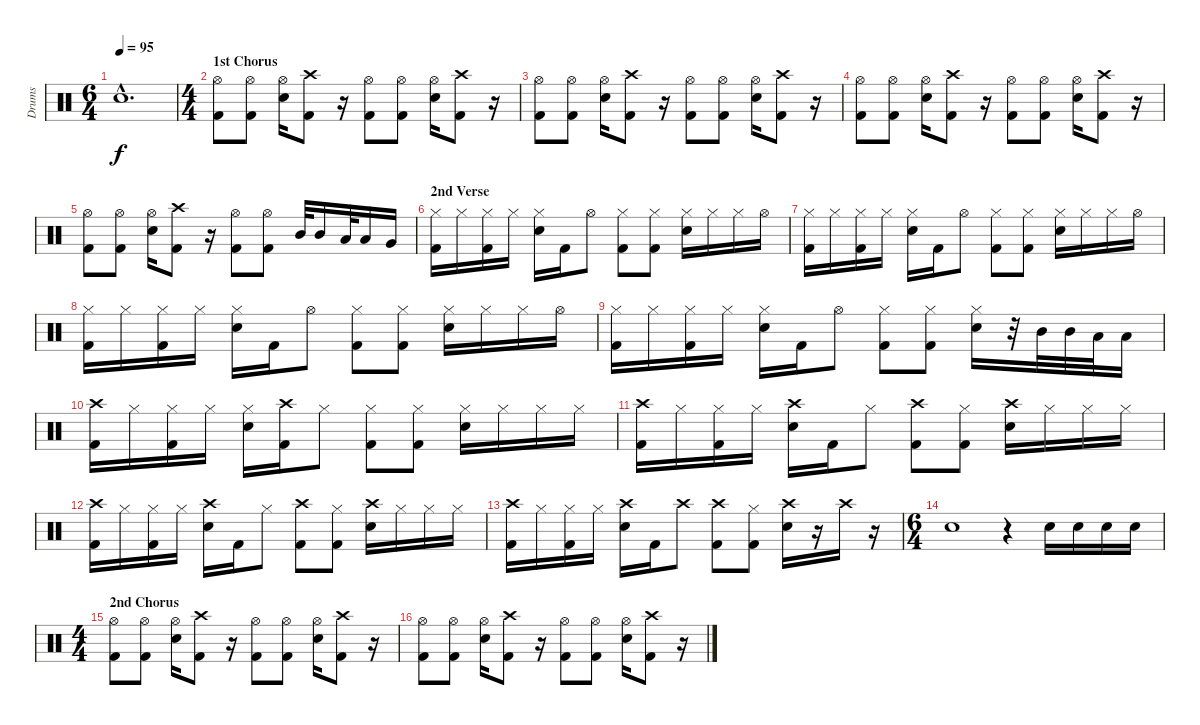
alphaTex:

\track ("Drums" "Drums") {instrument percussion}
\staff {score}
\articulation defaults
\ts (6 4)
\tempo 95
\clef neutral
\ks c "Electric Snare (hit)"{hac}.1{d dy f}
|
\ts (4 4)
\section ("" "1st Chorus")
("Hi-Hat (open)" "Kick (hit) 2").8 ("Hi-Hat (open)" "Kick (hit) 2").8 ("Hi-Hat (open)" "Electric Snare (hit)").16 ("Crash high (hit)" "Kick (hit) 2").8 r.16 ("Hi-Hat (open)" "Kick (hit) 2").8 ("Hi-Hat (open)" "Kick (hit) 2").8 ("Hi-Hat (open)" "Electric Snare (hit)").16 ("Crash high (hit)" "Kick (hit) 2").8 r.16 |
("Hi-Hat (open)" "Kick (hit) 2").8 ("Hi-Hat (open)" "Kick (hit) 2").8 ("Hi-Hat (open)" "Electric Snare (hit)").16 ("Crash high (hit)" "Kick (hit) 2").8 r.16 ("Hi-Hat (open)" "Kick (hit) 2").8 ("Hi-Hat (open)" "Kick (hit) 2").8 ("Hi-Hat (open)" "Electric Snare (hit)").16 ("Crash high (hit)" "Kick (hit) 2").8 r.16 |
("Hi-Hat (open)" "Kick (hit) 2").8 ("Hi-Hat (open)" "Kick (hit) 2").8 ("Hi-Hat (open)" "Electric Snare (hit)").16 ("Crash high (hit)" "Kick (hit) 2").8 r.16 ("Hi-Hat (open)" "Kick (hit) 2").8 ("Hi-Hat (open)" "Kick (hit) 2").8 ("Hi-Hat (open)" "Electric Snare (hit)").16 ("Crash high (hit)" "Kick (hit) 2").8 r.16 |
("Hi-Hat (open)" "Kick (hit) 2").8 ("Hi-Hat (open)" "Kick (hit) 2").8 ("Hi-Hat (open)" "Electric Snare (hit)").16 ("Crash high (hit)" "Kick (hit) 2").8 r.16 ("Hi-Hat (open)" "Kick (hit) 2").8 ("Hi-Hat (open)" "Kick (hit) 2").8 "Mid Tom (hit)".32 "Mid Tom (hit)".16 "Low Tom (hit)".32 "Low Tom (hit)".16 "Very Low Tom (hit)".16 |
\section ("" "2nd Verse")
("Hi-Hat (closed)" "Kick (hit) 2").16 "Hi-Hat (closed)".16 ("Hi-Hat (closed)" "Kick (hit) 2").16 "Hi-Hat (closed)".16 ("Hi-Hat (closed)" "Electric Snare (hit)").16 "Kick (hit) 2".16 "Hi-Hat (open)".8 ("Hi-Hat (closed)" "Kick (hit) 2").8 ("Hi-Hat (closed)" "Kick (hit) 2").8 ("Hi-Hat (closed)" "Electric Snare (hit)").16 "Hi-Hat (closed)".16 "Hi-Hat (closed)".16 "Hi-Hat (open)".16 |
("Hi-Hat (closed)" "Kick (hit) 2").16 "Hi-Hat (closed)".16 ("Hi-Hat (closed)" "Kick (hit) 2").16 "Hi-Hat (closed)".16 ("Hi-Hat (closed)" "Electric Snare (hit)").16 "Kick (hit) 2".16 "Hi-Hat (open)".8 ("Hi-Hat (closed)" "Kick (hit) 2").8 ("Hi-Hat (closed)" "Kick (hit) 2").8 ("Hi-Hat (closed)" "Electric Snare (hit)").16 "Hi-Hat (closed)".16 "Hi-Hat (closed)".16 "Hi-Hat (open)".16 |
("Hi-Hat (closed)" "Kick (hit) 2").16 "Hi-Hat (closed)".16 ("Hi-Hat (closed)" "Kick (hit) 2").16 "Hi-Hat (closed)".16 ("Hi-Hat (closed)" "Electric Snare (hit)").16 "Kick (hit) 2".16 "Hi-Hat (open)".8 ("Hi-Hat (closed)" "Kick (hit) 2").8 ("Hi-Hat (closed)" "Kick (hit) 2").8 ("Hi-Hat (closed)" "Electric Snare (hit)").16 "Hi-Hat (closed)".16 "Hi-Hat (closed)".16 "Hi-Hat (open)".16 |
("Hi-Hat (closed)" "Kick (hit) 2").16 "Hi-Hat (closed)".16 ("Hi-Hat (closed)" "Kick (hit) 2").16 "Hi-Hat (closed)".16 ("Hi-Hat (closed)" "Electric Snare (hit)").16 "Kick (hit) 2".16 "Hi-Hat (open)".8 ("Hi-Hat (closed)" "Kick (hit) 2").8 ("Hi-Hat (closed)" "Kick (hit) 2").8 ("Hi-Hat (closed)" "Electric Snare (hit)").16 r.32 "Mid Tom (hit)".32 "Mid Tom (hit)".32 "Low Tom (hit)".32 "Low Tom (hit)".16 |
("Crash high (hit)" "Kick (hit) 2").16 "Hi-Hat (closed)".16 ("Hi-Hat (closed)" "Kick (hit) 2").16 "Hi-Hat (closed)".16 ("Hi-Hat (closed)" "Electric Snare (hit)").16 ("Crash high (hit)" "Kick (hit) 2").16 "Hi-Hat (closed)".8 ("Hi-Hat (closed)" "Kick (hit) 2").8 ("Hi-Hat (closed)" "Kick (hit) 2").8 ("Hi-Hat (closed)" "Electric Snare (hit)").16 "Hi-Hat (closed)".16 "Hi-Hat (closed)".16 "Hi-Hat (closed)".16 |
("Crash high (hit)" "Kick (hit) 2").16 "Hi-Hat (closed)".16 ("Hi-Hat (closed)" "Kick (hit) 2").16 "Hi-Hat (closed)".16 ("Crash high (hit)" "Electric Snare (hit)").16 "Kick (hit) 2".16 "Hi-Hat (closed)".8 ("Crash high (hit)" "Kick (hit) 2").8 ("Hi-Hat (closed)" "Kick (hit) 2").8 ("Crash high (hit)" "Electric Snare (hit)").16 "Hi-Hat (closed)".16 "Hi-Hat (closed)".16 "Hi-Hat (closed)".16 |
("Crash high (hit)" "Kick (hit) 2").16 "Hi-Hat (closed)".16 ("Hi-Hat (closed)" "Kick (hit) 2").16 "Hi-Hat (closed)".16 ("Crash high (hit)" "Electric Snare (hit)").16 "Kick (hit) 2".16 "Hi-Hat (closed)".8 ("Crash high (hit)" "Kick (hit) 2").8 ("Hi-Hat (closed)" "Kick (hit) 2").8 ("Crash high (hit)" "Electric Snare (hit)").16 "Hi-Hat (closed)".16 "Hi-Hat (closed)".16 "Hi-Hat (closed)".16 |
("Crash high (hit)" "Kick (hit) 2").16 "Hi-Hat (closed)".16 ("Hi-Hat (closed)" "Kick (hit) 2").16 "Hi-Hat (closed)".16 ("Crash high (hit)" "Electric Snare (hit)").16 "Kick (hit) 2".16 "Crash high (hit)".8 ("Crash high (hit)" "Kick (hit) 2").8 ("Hi-Hat (closed)" "Kick (hit) 2").8 ("Crash high (hit)" "Electric Snare (hit)").16 r.16 "Crash high (hit)".16 r.16 |
\ts (6 4)
"Electric Snare (hit)".1 r.4 "Electric Snare (hit)".16 "Electric Snare (hit)".16 "Electric Snare (hit)".16 "Electric Snare (hit)".16 |
\ts (4 4)
\section ("" "2nd Chorus")
("Hi-Hat (open)" "Kick (hit) 2").8 ("Hi-Hat (open)" "Kick (hit) 2").8 ("Hi-Hat (open)" "Electric Snare (hit)").16 ("Crash high (hit)" "Kick (hit) 2").8 r.16 ("Hi-Hat (open)" "Kick (hit) 2").8 ("Hi-Hat (open)" "Kick (hit) 2").8 ("Hi-Hat (open)" "Electric Snare (hit)").16 ("Crash high (hit)" "Kick (hit) 2").8 r.16 |
("Hi-Hat (open)" "Kick (hit) 2").8 ("Hi-Hat (open)" "Kick (hit) 2").8 ("Hi-Hat (open)" "Electric Snare (hit)").16 ("Crash high (hit)" "Kick (hit) 2").8 r.16 ("Hi-Hat (open)" "Kick (hit) 2").8 ("Hi-Hat (open)" "Kick (hit) 2").8 ("Hi-Hat (open)" "Electric Snare (hit)").16 ("Crash high (hit)" "Kick (hit) 2").8 r.16
